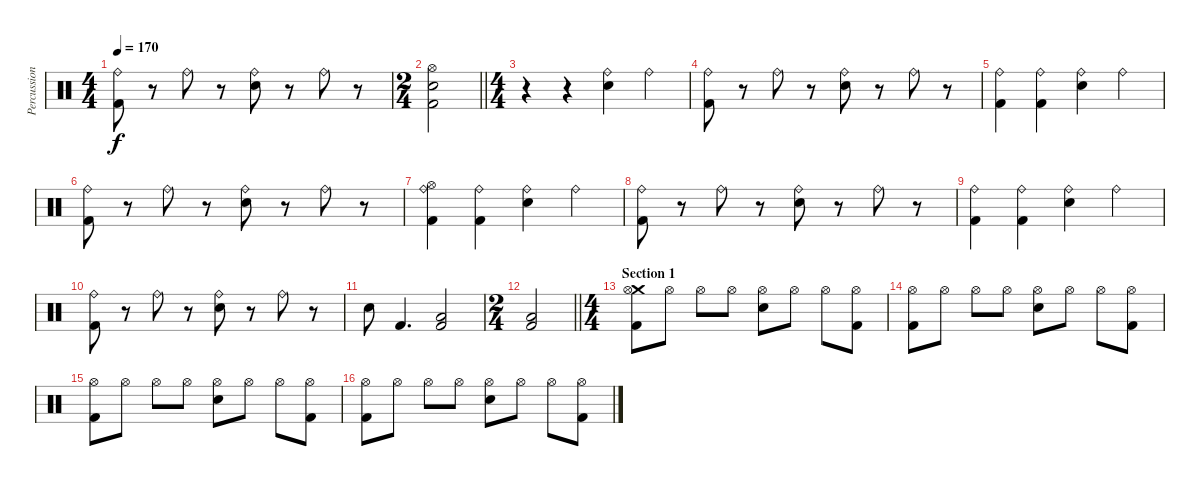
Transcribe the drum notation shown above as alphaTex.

\track ("Percussions" "Percussion") {instrument percussion}
\staff {score}
\articulation defaults
\ts (4 4)
\tempo 170
\clef neutral
\ks c
("Ride (bell)" "Kick (hit) 2").8{dy f} r.8 "Ride (bell)".8 r.8 ("Ride (bell)" "Electric Snare (hit)").8 r.8 "Ride (bell)".8 r.8 |
\ts (2 4)
\barLineRight lightlight
("Hi-Hat (open)" "Electric Snare (hit)" "Kick (hit) 2").2 |
\ts (4 4)
\section ("" "")
r.4 r.4 ("Ride (bell)" "Electric Snare (hit)").4 "Ride (bell)".4 |
("Ride (bell)" "Kick (hit) 2").8 r.8 "Ride (bell)".8 r.8 ("Ride (bell)" "Electric Snare (hit)").8 r.8 "Ride (bell)".8 r.8 |
("Ride (bell)" "Kick (hit) 2").4 ("Ride (bell)" "Kick (hit) 2").4 ("Ride (bell)" "Electric Snare (hit)").4 "Ride (bell)".4 |
("Ride (bell)" "Kick (hit) 2").8 r.8 "Ride (bell)".8 r.8 ("Ride (bell)" "Electric Snare (hit)").8 r.8 "Ride (bell)".8 r.8 |
("Hi-Hat (open)" "Ride (bell)" "Kick (hit) 2").4 ("Ride (bell)" "Kick (hit) 2").4 ("Ride (bell)" "Electric Snare (hit)").4 "Ride (bell)".4 |
("Ride (bell)" "Kick (hit) 2").8 r.8 "Ride (bell)".8 r.8 ("Ride (bell)" "Electric Snare (hit)").8 r.8 "Ride (bell)".8 r.8 |
("Ride (bell)" "Kick (hit) 2").4 ("Ride (bell)" "Kick (hit) 2").4 ("Ride (bell)" "Electric Snare (hit)").4 "Ride (bell)".4 |
("Ride (bell)" "Kick (hit) 2").8 r.8 "Ride (bell)".8 r.8 ("Ride (bell)" "Electric Snare (hit)").8 r.8 "Ride (bell)".8 r.8 |
"Electric Snare (hit)".8 "Kick (hit) 2".4{d} ("Low Tom (hit)" "Kick (hit) 2").2 |
\ts (2 4)
\barLineRight lightlight
("Low Tom (hit)" "Kick (hit) 2").2 |
\ts (4 4)
\section ("" "Section 1")
("Crash medium (hit)" "Hi-Hat (open)" "Kick (hit) 2").8 "Hi-Hat (open)".8 "Hi-Hat (open)".8 "Hi-Hat (open)".8 ("Hi-Hat (open)" "Electric Snare (hit)").8 "Hi-Hat (open)".8 "Hi-Hat (open)".8 ("Hi-Hat (open)" "Kick (hit) 2").8 |
("Hi-Hat (open)" "Kick (hit) 2").8 "Hi-Hat (open)".8 "Hi-Hat (open)".8 "Hi-Hat (open)".8 ("Hi-Hat (open)" "Electric Snare (hit)").8 "Hi-Hat (open)".8 "Hi-Hat (open)".8 ("Hi-Hat (open)" "Kick (hit) 2").8 |
("Hi-Hat (open)" "Kick (hit) 2").8 "Hi-Hat (open)".8 "Hi-Hat (open)".8 "Hi-Hat (open)".8 ("Hi-Hat (open)" "Electric Snare (hit)").8 "Hi-Hat (open)".8 "Hi-Hat (open)".8 ("Hi-Hat (open)" "Kick (hit) 2").8 |
("Hi-Hat (open)" "Kick (hit) 2").8 "Hi-Hat (open)".8 "Hi-Hat (open)".8 "Hi-Hat (open)".8 ("Hi-Hat (open)" "Electric Snare (hit)").8 "Hi-Hat (open)".8 "Hi-Hat (open)".8 ("Hi-Hat (open)" "Kick (hit) 2").8
